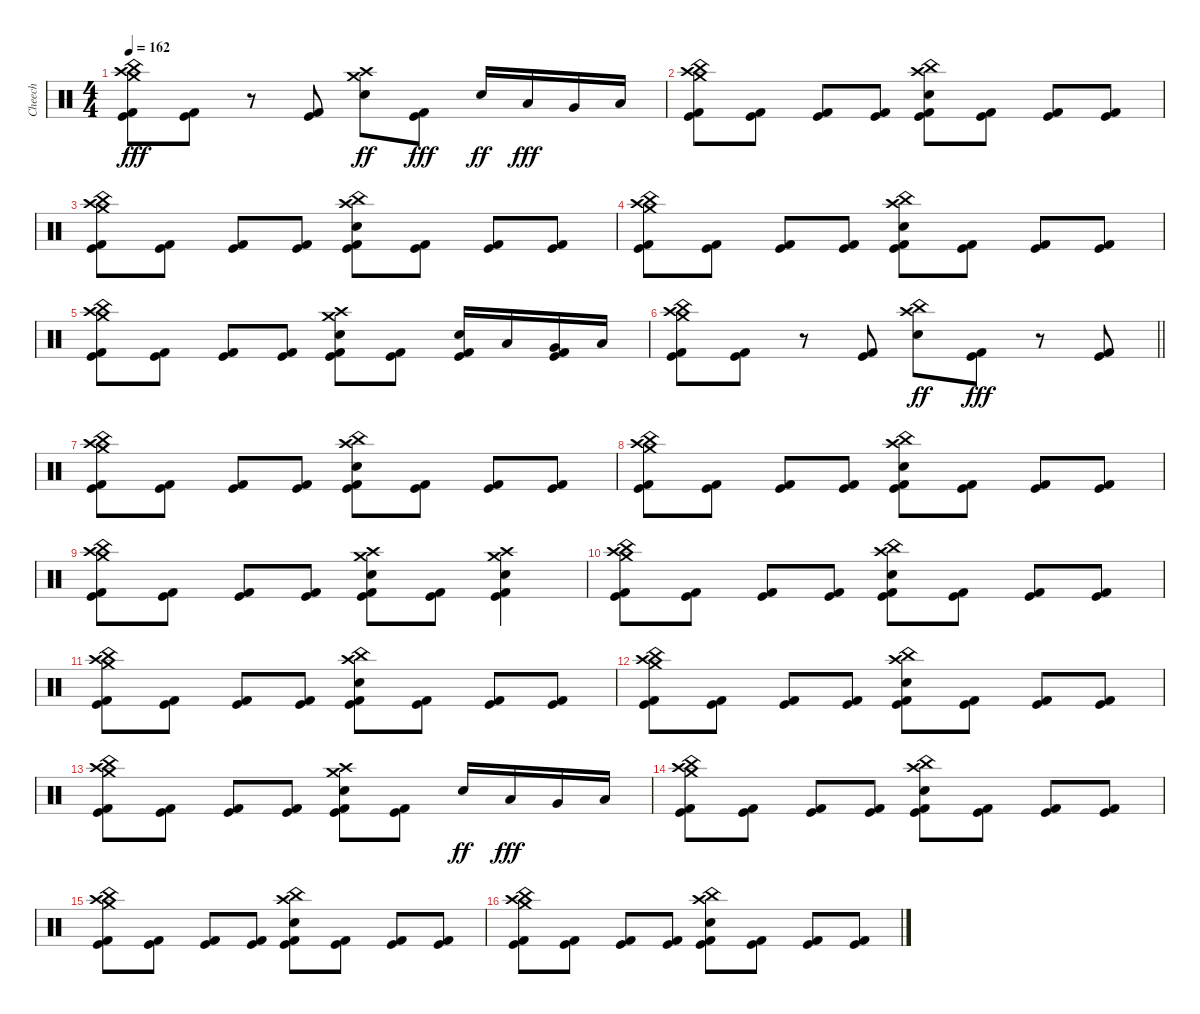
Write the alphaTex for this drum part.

\track ("Cheech" "Cheech") {instrument percussion}
\staff {score}
\articulation defaults
\ts (4 4)
\tempo 162
\clef neutral
\ks c
("China (hit)" "Crash high (hit)" "Crash medium (hit)" "Kick (hit) 2" "Kick (hit)").8{dy fff} ("Kick (hit) 2" "Kick (hit)").8 r.8 ("Kick (hit) 2" "Kick (hit)").8 ("Crash medium (hit)" "Crash high (hit)" "Electric Snare (hit)").8{dy ff} ("Kick (hit) 2" "Kick (hit)").8{dy fff} "Electric Snare (hit)".16{dy ff} "Low Tom (hit)".16{dy fff} "Very Low Tom (hit)".16 "Low Floor Tom (hit)".16 |
("China (hit)" "Crash high (hit)" "Crash medium (hit)" "Kick (hit) 2" "Kick (hit)").8 ("Kick (hit) 2" "Kick (hit)").8 ("Kick (hit) 2" "Kick (hit)").8 ("Kick (hit) 2" "Kick (hit)").8 ("China (hit)" "Crash high (hit)" "Electric Snare (hit)" "Kick (hit) 2" "Kick (hit)").8 ("Kick (hit) 2" "Kick (hit)").8 ("Kick (hit) 2" "Kick (hit)").8 ("Kick (hit) 2" "Kick (hit)").8 |
("China (hit)" "Crash high (hit)" "Crash medium (hit)" "Kick (hit) 2" "Kick (hit)").8 ("Kick (hit) 2" "Kick (hit)").8 ("Kick (hit) 2" "Kick (hit)").8 ("Kick (hit) 2" "Kick (hit)").8 ("China (hit)" "Crash high (hit)" "Electric Snare (hit)" "Kick (hit) 2" "Kick (hit)").8 ("Kick (hit) 2" "Kick (hit)").8 ("Kick (hit) 2" "Kick (hit)").8 ("Kick (hit) 2" "Kick (hit)").8 |
("China (hit)" "Crash high (hit)" "Crash medium (hit)" "Kick (hit) 2" "Kick (hit)").8 ("Kick (hit) 2" "Kick (hit)").8 ("Kick (hit) 2" "Kick (hit)").8 ("Kick (hit) 2" "Kick (hit)").8 ("China (hit)" "Crash high (hit)" "Electric Snare (hit)" "Kick (hit) 2" "Kick (hit)").8 ("Kick (hit) 2" "Kick (hit)").8 ("Kick (hit) 2" "Kick (hit)").8 ("Kick (hit) 2" "Kick (hit)").8 |
("China (hit)" "Crash high (hit)" "Crash medium (hit)" "Kick (hit) 2" "Kick (hit)").8 ("Kick (hit) 2" "Kick (hit)").8 ("Kick (hit) 2" "Kick (hit)").8 ("Kick (hit) 2" "Kick (hit)").8 ("Crash medium (hit)" "Crash high (hit)" "Electric Snare (hit)" "Kick (hit) 2" "Kick (hit)").8 ("Kick (hit) 2" "Kick (hit)").8 ("Electric Snare (hit)" "Kick (hit) 2" "Kick (hit)").16 "Low Tom (hit)".16 ("Very Low Tom (hit)" "Kick (hit) 2" "Kick (hit)").16 "Low Floor Tom (hit)".16 |
\barLineRight lightlight
("China (hit)" "Crash high (hit)" "Crash medium (hit)" "Kick (hit) 2" "Kick (hit)").8 ("Kick (hit) 2" "Kick (hit)").8 r.8 ("Kick (hit) 2" "Kick (hit)").8 ("China (hit)" "Crash high (hit)" "Electric Snare (hit)").8{dy ff} ("Kick (hit) 2" "Kick (hit)").8{dy fff} r.8 ("Kick (hit) 2" "Kick (hit)").8 |
("China (hit)" "Crash high (hit)" "Crash medium (hit)" "Kick (hit) 2" "Kick (hit)").8 ("Kick (hit) 2" "Kick (hit)").8 ("Kick (hit) 2" "Kick (hit)").8 ("Kick (hit) 2" "Kick (hit)").8 ("China (hit)" "Crash high (hit)" "Electric Snare (hit)" "Kick (hit) 2" "Kick (hit)").8 ("Kick (hit) 2" "Kick (hit)").8 ("Kick (hit) 2" "Kick (hit)").8 ("Kick (hit) 2" "Kick (hit)").8 |
("China (hit)" "Crash high (hit)" "Crash medium (hit)" "Kick (hit) 2" "Kick (hit)").8 ("Kick (hit) 2" "Kick (hit)").8 ("Kick (hit) 2" "Kick (hit)").8 ("Kick (hit) 2" "Kick (hit)").8 ("China (hit)" "Crash high (hit)" "Electric Snare (hit)" "Kick (hit) 2" "Kick (hit)").8 ("Kick (hit) 2" "Kick (hit)").8 ("Kick (hit) 2" "Kick (hit)").8 ("Kick (hit) 2" "Kick (hit)").8 |
("China (hit)" "Crash high (hit)" "Crash medium (hit)" "Kick (hit) 2" "Kick (hit)").8 ("Kick (hit) 2" "Kick (hit)").8 ("Kick (hit) 2" "Kick (hit)").8 ("Kick (hit) 2" "Kick (hit)").8 ("Crash medium (hit)" "Crash high (hit)" "Electric Snare (hit)" "Kick (hit) 2" "Kick (hit)").8 ("Kick (hit) 2" "Kick (hit)").8 ("Crash medium (hit)" "Crash high (hit)" "Electric Snare (hit)" "Kick (hit) 2" "Kick (hit)").4 |
("China (hit)" "Crash high (hit)" "Crash medium (hit)" "Kick (hit) 2" "Kick (hit)").8 ("Kick (hit) 2" "Kick (hit)").8 ("Kick (hit) 2" "Kick (hit)").8 ("Kick (hit) 2" "Kick (hit)").8 ("China (hit)" "Crash high (hit)" "Electric Snare (hit)" "Kick (hit) 2" "Kick (hit)").8 ("Kick (hit) 2" "Kick (hit)").8 ("Kick (hit) 2" "Kick (hit)").8 ("Kick (hit) 2" "Kick (hit)").8 |
("China (hit)" "Crash high (hit)" "Crash medium (hit)" "Kick (hit) 2" "Kick (hit)").8 ("Kick (hit) 2" "Kick (hit)").8 ("Kick (hit) 2" "Kick (hit)").8 ("Kick (hit) 2" "Kick (hit)").8 ("China (hit)" "Crash high (hit)" "Electric Snare (hit)" "Kick (hit) 2" "Kick (hit)").8 ("Kick (hit) 2" "Kick (hit)").8 ("Kick (hit) 2" "Kick (hit)").8 ("Kick (hit) 2" "Kick (hit)").8 |
("China (hit)" "Crash high (hit)" "Crash medium (hit)" "Kick (hit) 2" "Kick (hit)").8 ("Kick (hit) 2" "Kick (hit)").8 ("Kick (hit) 2" "Kick (hit)").8 ("Kick (hit) 2" "Kick (hit)").8 ("China (hit)" "Crash high (hit)" "Electric Snare (hit)" "Kick (hit) 2" "Kick (hit)").8 ("Kick (hit) 2" "Kick (hit)").8 ("Kick (hit) 2" "Kick (hit)").8 ("Kick (hit) 2" "Kick (hit)").8 |
("China (hit)" "Crash high (hit)" "Crash medium (hit)" "Kick (hit) 2" "Kick (hit)").8 ("Kick (hit) 2" "Kick (hit)").8 ("Kick (hit) 2" "Kick (hit)").8 ("Kick (hit) 2" "Kick (hit)").8 ("Crash medium (hit)" "Crash high (hit)" "Electric Snare (hit)" "Kick (hit) 2" "Kick (hit)").8 ("Kick (hit) 2" "Kick (hit)").8 "Electric Snare (hit)".16{dy ff} "Low Tom (hit)".16{dy fff} "Very Low Tom (hit)".16 "Low Floor Tom (hit)".16 |
("China (hit)" "Crash high (hit)" "Crash medium (hit)" "Kick (hit) 2" "Kick (hit)").8 ("Kick (hit) 2" "Kick (hit)").8 ("Kick (hit) 2" "Kick (hit)").8 ("Kick (hit) 2" "Kick (hit)").8 ("China (hit)" "Crash high (hit)" "Electric Snare (hit)" "Kick (hit) 2" "Kick (hit)").8 ("Kick (hit) 2" "Kick (hit)").8 ("Kick (hit) 2" "Kick (hit)").8 ("Kick (hit) 2" "Kick (hit)").8 |
("China (hit)" "Crash high (hit)" "Crash medium (hit)" "Kick (hit) 2" "Kick (hit)").8 ("Kick (hit) 2" "Kick (hit)").8 ("Kick (hit) 2" "Kick (hit)").8 ("Kick (hit) 2" "Kick (hit)").8 ("China (hit)" "Crash high (hit)" "Electric Snare (hit)" "Kick (hit) 2" "Kick (hit)").8 ("Kick (hit) 2" "Kick (hit)").8 ("Kick (hit) 2" "Kick (hit)").8 ("Kick (hit) 2" "Kick (hit)").8 |
("China (hit)" "Crash high (hit)" "Crash medium (hit)" "Kick (hit) 2" "Kick (hit)").8 ("Kick (hit) 2" "Kick (hit)").8 ("Kick (hit) 2" "Kick (hit)").8 ("Kick (hit) 2" "Kick (hit)").8 ("China (hit)" "Crash high (hit)" "Electric Snare (hit)" "Kick (hit) 2" "Kick (hit)").8 ("Kick (hit) 2" "Kick (hit)").8 ("Kick (hit) 2" "Kick (hit)").8 ("Kick (hit) 2" "Kick (hit)").8
